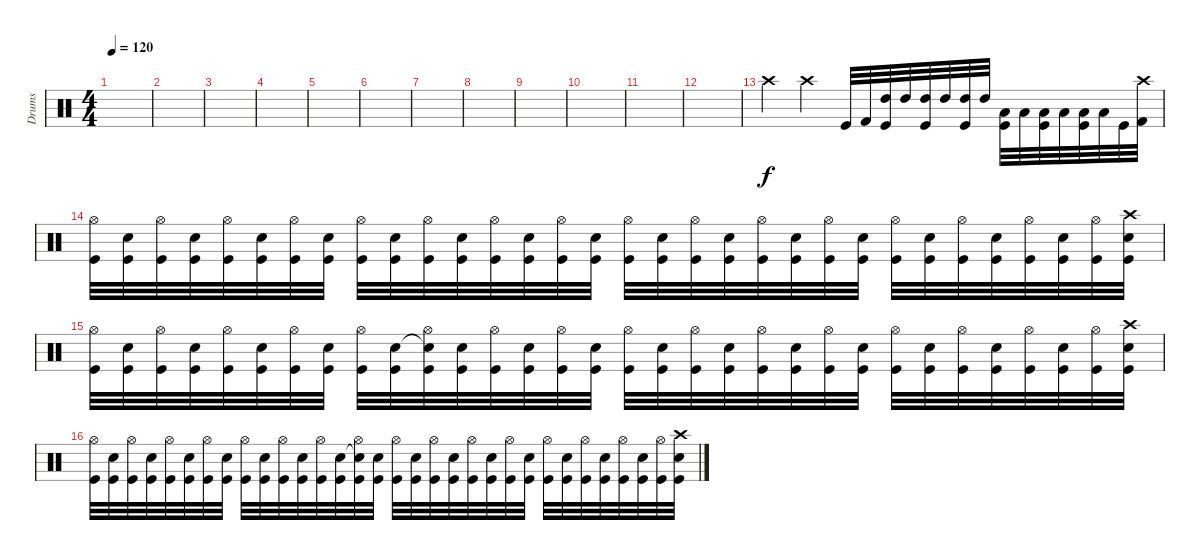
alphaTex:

\track ("Drums" "Drums") {instrument percussion}
\staff {score}
\articulation defaults
\ts (4 4)
\tempo 120
\clef neutral
\ks c
|
|
|
|
|
|
|
|
|
|
|
|
"Crash high (hit)".4 "Crash high (hit)".4 "Kick (hit)".32 "Kick (hit) 2".32 ("High Tom (hit)" "Kick (hit)").32 "High Tom (hit)".32 ("High Tom (hit)" "Kick (hit)").32 "High Tom (hit)".32 ("High Tom (hit)" "Kick (hit)").32 "High Tom (hit)".32 ("Low Tom (hit)" "Kick (hit)").32 "Low Tom (hit)".32 ("Low Tom (hit)" "Kick (hit)").32 "Low Tom (hit)".32 ("Low Tom (hit)" "Kick (hit)").32 "Low Tom (hit)".32 "Kick (hit)".32 ("Crash high (hit)" "Kick (hit) 2").32 |
("Hi-Hat (open)" "Kick (hit)").32 ("Snare (hit) 2" "Kick (hit)").32 ("Hi-Hat (open)" "Kick (hit)").32 ("Snare (hit) 2" "Kick (hit)").32 ("Hi-Hat (open)" "Kick (hit)").32 ("Snare (hit) 2" "Kick (hit)").32 ("Hi-Hat (open)" "Kick (hit)").32 ("Snare (hit) 2" "Kick (hit)").32 ("Hi-Hat (open)" "Kick (hit)").32 ("Snare (hit) 2" "Kick (hit)").32 ("Hi-Hat (open)" "Kick (hit)").32 ("Snare (hit) 2" "Kick (hit)").32 ("Hi-Hat (open)" "Kick (hit)").32 ("Snare (hit) 2" "Kick (hit)").32 ("Hi-Hat (open)" "Kick (hit)").32 ("Snare (hit) 2" "Kick (hit)").32 ("Hi-Hat (open)" "Kick (hit)").32 ("Snare (hit) 2" "Kick (hit)").32 ("Hi-Hat (open)" "Kick (hit)").32 ("Snare (hit) 2" "Kick (hit)").32 ("Hi-Hat (open)" "Kick (hit)").32 ("Snare (hit) 2" "Kick (hit)").32 ("Hi-Hat (open)" "Kick (hit)").32 ("Snare (hit) 2" "Kick (hit)").32 ("Hi-Hat (open)" "Kick (hit)").32 ("Snare (hit) 2" "Kick (hit)").32 ("Hi-Hat (open)" "Kick (hit)").32 ("Snare (hit) 2" "Kick (hit)").32 ("Hi-Hat (open)" "Kick (hit)").32 ("Snare (hit) 2" "Kick (hit)").32 ("Hi-Hat (open)" "Kick (hit)").32 ("Crash high (hit)" "Snare (hit) 2" "Kick (hit)").32 |
("Hi-Hat (open)" "Kick (hit)").32 ("Snare (hit) 2" "Kick (hit)").32 ("Hi-Hat (open)" "Kick (hit)").32 ("Snare (hit) 2" "Kick (hit)").32 ("Hi-Hat (open)" "Kick (hit)").32 ("Snare (hit) 2" "Kick (hit)").32 ("Hi-Hat (open)" "Kick (hit)").32 ("Snare (hit) 2" "Kick (hit)").32 ("Hi-Hat (open)" "Kick (hit)").32 ("Snare (hit) 2" "Kick (hit)").32 ("Snare (hit)"{t} "Hi-Hat (open)" "Kick (hit)").32 ("Snare (hit) 2" "Kick (hit)").32 ("Hi-Hat (open)" "Kick (hit)").32 ("Snare (hit) 2" "Kick (hit)").32 ("Hi-Hat (open)" "Kick (hit)").32 ("Snare (hit) 2" "Kick (hit)").32 ("Hi-Hat (open)" "Kick (hit)").32 ("Snare (hit) 2" "Kick (hit)").32 ("Hi-Hat (open)" "Kick (hit)").32 ("Snare (hit) 2" "Kick (hit)").32 ("Hi-Hat (open)" "Kick (hit)").32 ("Snare (hit) 2" "Kick (hit)").32 ("Hi-Hat (open)" "Kick (hit)").32 ("Snare (hit) 2" "Kick (hit)").32 ("Hi-Hat (open)" "Kick (hit)").32 ("Snare (hit) 2" "Kick (hit)").32 ("Hi-Hat (open)" "Kick (hit)").32 ("Snare (hit) 2" "Kick (hit)").32 ("Hi-Hat (open)" "Kick (hit)").32 ("Snare (hit) 2" "Kick (hit)").32 ("Hi-Hat (open)" "Kick (hit)").32 ("Crash high (hit)" "Snare (hit) 2" "Kick (hit)").32 |
("Hi-Hat (open)" "Kick (hit)").32 ("Snare (hit) 2" "Kick (hit)").32 ("Hi-Hat (open)" "Kick (hit)").32 ("Snare (hit) 2" "Kick (hit)").32 ("Hi-Hat (open)" "Kick (hit)").32 ("Snare (hit) 2" "Kick (hit)").32 ("Hi-Hat (open)" "Kick (hit)").32 ("Snare (hit) 2" "Kick (hit)").32 ("Hi-Hat (open)" "Kick (hit)").32 ("Snare (hit) 2" "Kick (hit)").32 ("Hi-Hat (open)" "Kick (hit)").32 ("Snare (hit) 2" "Kick (hit)").32 ("Hi-Hat (open)" "Kick (hit)").32 ("Snare (hit) 2" "Kick (hit)").32 ("Snare (hit)"{t} "Hi-Hat (open)" "Kick (hit)").32 ("Snare (hit) 2" "Kick (hit)").32 ("Hi-Hat (open)" "Kick (hit)").32 ("Snare (hit) 2" "Kick (hit)").32 ("Hi-Hat (open)" "Kick (hit)").32 ("Snare (hit) 2" "Kick (hit)").32 ("Hi-Hat (open)" "Kick (hit)").32 ("Snare (hit) 2" "Kick (hit)").32 ("Hi-Hat (open)" "Kick (hit)").32 ("Snare (hit) 2" "Kick (hit)").32 ("Hi-Hat (open)" "Kick (hit)").32 ("Snare (hit) 2" "Kick (hit)").32 ("Hi-Hat (open)" "Kick (hit)").32 ("Snare (hit) 2" "Kick (hit)").32 ("Hi-Hat (open)" "Kick (hit)").32 ("Snare (hit) 2" "Kick (hit)").32 ("Hi-Hat (open)" "Kick (hit)").32 ("Crash high (hit)" "Snare (hit) 2" "Kick (hit)").32
